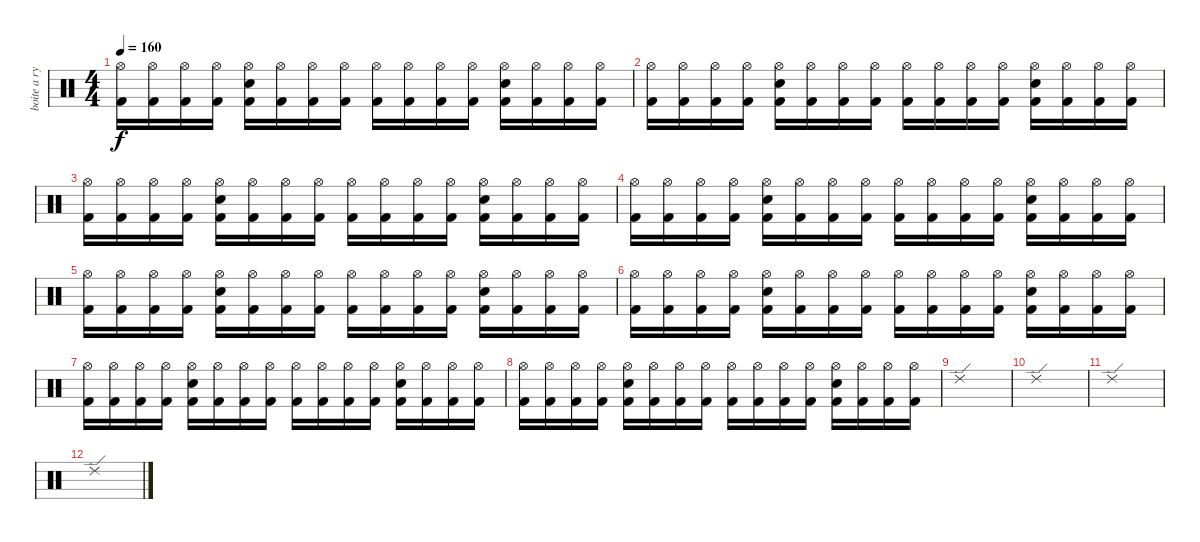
\track ("boite a rythme" "boite a ry") {instrument percussion}
\staff {score}
\articulation defaults
\ts (4 4)
\tempo 160
\clef neutral
\ks c
("Hi-Hat (open)" "Kick (hit) 2").16{dy f} ("Hi-Hat (open)" "Kick (hit) 2").16 ("Hi-Hat (open)" "Kick (hit) 2").16 ("Hi-Hat (open)" "Kick (hit) 2").16 ("Hi-Hat (open)" "Electric Snare (hit)" "Kick (hit) 2").16 ("Hi-Hat (open)" "Kick (hit) 2").16 ("Hi-Hat (open)" "Kick (hit) 2").16 ("Hi-Hat (open)" "Kick (hit) 2").16 ("Hi-Hat (open)" "Kick (hit) 2").16 ("Hi-Hat (open)" "Kick (hit) 2").16 ("Hi-Hat (open)" "Kick (hit) 2").16 ("Hi-Hat (open)" "Kick (hit) 2").16 ("Hi-Hat (open)" "Electric Snare (hit)" "Kick (hit) 2").16 ("Hi-Hat (open)" "Kick (hit) 2").16 ("Hi-Hat (open)" "Kick (hit) 2").16 ("Hi-Hat (open)" "Kick (hit) 2").16 |
("Hi-Hat (open)" "Kick (hit) 2").16 ("Hi-Hat (open)" "Kick (hit) 2").16 ("Hi-Hat (open)" "Kick (hit) 2").16 ("Hi-Hat (open)" "Kick (hit) 2").16 ("Hi-Hat (open)" "Electric Snare (hit)" "Kick (hit) 2").16 ("Hi-Hat (open)" "Kick (hit) 2").16 ("Hi-Hat (open)" "Kick (hit) 2").16 ("Hi-Hat (open)" "Kick (hit) 2").16 ("Hi-Hat (open)" "Kick (hit) 2").16 ("Hi-Hat (open)" "Kick (hit) 2").16 ("Hi-Hat (open)" "Kick (hit) 2").16 ("Hi-Hat (open)" "Kick (hit) 2").16 ("Hi-Hat (open)" "Electric Snare (hit)" "Kick (hit) 2").16 ("Hi-Hat (open)" "Kick (hit) 2").16 ("Hi-Hat (open)" "Kick (hit) 2").16 ("Hi-Hat (open)" "Kick (hit) 2").16 |
("Hi-Hat (open)" "Kick (hit) 2").16 ("Hi-Hat (open)" "Kick (hit) 2").16 ("Hi-Hat (open)" "Kick (hit) 2").16 ("Hi-Hat (open)" "Kick (hit) 2").16 ("Hi-Hat (open)" "Electric Snare (hit)" "Kick (hit) 2").16 ("Hi-Hat (open)" "Kick (hit) 2").16 ("Hi-Hat (open)" "Kick (hit) 2").16 ("Hi-Hat (open)" "Kick (hit) 2").16 ("Hi-Hat (open)" "Kick (hit) 2").16 ("Hi-Hat (open)" "Kick (hit) 2").16 ("Hi-Hat (open)" "Kick (hit) 2").16 ("Hi-Hat (open)" "Kick (hit) 2").16 ("Hi-Hat (open)" "Electric Snare (hit)" "Kick (hit) 2").16 ("Hi-Hat (open)" "Kick (hit) 2").16 ("Hi-Hat (open)" "Kick (hit) 2").16 ("Hi-Hat (open)" "Kick (hit) 2").16 |
("Hi-Hat (open)" "Kick (hit) 2").16 ("Hi-Hat (open)" "Kick (hit) 2").16 ("Hi-Hat (open)" "Kick (hit) 2").16 ("Hi-Hat (open)" "Kick (hit) 2").16 ("Hi-Hat (open)" "Electric Snare (hit)" "Kick (hit) 2").16 ("Hi-Hat (open)" "Kick (hit) 2").16 ("Hi-Hat (open)" "Kick (hit) 2").16 ("Hi-Hat (open)" "Kick (hit) 2").16 ("Hi-Hat (open)" "Kick (hit) 2").16 ("Hi-Hat (open)" "Kick (hit) 2").16 ("Hi-Hat (open)" "Kick (hit) 2").16 ("Hi-Hat (open)" "Kick (hit) 2").16 ("Hi-Hat (open)" "Electric Snare (hit)" "Kick (hit) 2").16 ("Hi-Hat (open)" "Kick (hit) 2").16 ("Hi-Hat (open)" "Kick (hit) 2").16 ("Hi-Hat (open)" "Kick (hit) 2").16 |
("Hi-Hat (open)" "Kick (hit) 2").16 ("Hi-Hat (open)" "Kick (hit) 2").16 ("Hi-Hat (open)" "Kick (hit) 2").16 ("Hi-Hat (open)" "Kick (hit) 2").16 ("Hi-Hat (open)" "Electric Snare (hit)" "Kick (hit) 2").16 ("Hi-Hat (open)" "Kick (hit) 2").16 ("Hi-Hat (open)" "Kick (hit) 2").16 ("Hi-Hat (open)" "Kick (hit) 2").16 ("Hi-Hat (open)" "Kick (hit) 2").16 ("Hi-Hat (open)" "Kick (hit) 2").16 ("Hi-Hat (open)" "Kick (hit) 2").16 ("Hi-Hat (open)" "Kick (hit) 2").16 ("Hi-Hat (open)" "Electric Snare (hit)" "Kick (hit) 2").16 ("Hi-Hat (open)" "Kick (hit) 2").16 ("Hi-Hat (open)" "Kick (hit) 2").16 ("Hi-Hat (open)" "Kick (hit) 2").16 |
("Hi-Hat (open)" "Kick (hit) 2").16 ("Hi-Hat (open)" "Kick (hit) 2").16 ("Hi-Hat (open)" "Kick (hit) 2").16 ("Hi-Hat (open)" "Kick (hit) 2").16 ("Hi-Hat (open)" "Electric Snare (hit)" "Kick (hit) 2").16 ("Hi-Hat (open)" "Kick (hit) 2").16 ("Hi-Hat (open)" "Kick (hit) 2").16 ("Hi-Hat (open)" "Kick (hit) 2").16 ("Hi-Hat (open)" "Kick (hit) 2").16 ("Hi-Hat (open)" "Kick (hit) 2").16 ("Hi-Hat (open)" "Kick (hit) 2").16 ("Hi-Hat (open)" "Kick (hit) 2").16 ("Hi-Hat (open)" "Electric Snare (hit)" "Kick (hit) 2").16 ("Hi-Hat (open)" "Kick (hit) 2").16 ("Hi-Hat (open)" "Kick (hit) 2").16 ("Hi-Hat (open)" "Kick (hit) 2").16 |
("Hi-Hat (open)" "Kick (hit) 2").16 ("Hi-Hat (open)" "Kick (hit) 2").16 ("Hi-Hat (open)" "Kick (hit) 2").16 ("Hi-Hat (open)" "Kick (hit) 2").16 ("Hi-Hat (open)" "Electric Snare (hit)" "Kick (hit) 2").16 ("Hi-Hat (open)" "Kick (hit) 2").16 ("Hi-Hat (open)" "Kick (hit) 2").16 ("Hi-Hat (open)" "Kick (hit) 2").16 ("Hi-Hat (open)" "Kick (hit) 2").16 ("Hi-Hat (open)" "Kick (hit) 2").16 ("Hi-Hat (open)" "Kick (hit) 2").16 ("Hi-Hat (open)" "Kick (hit) 2").16 ("Hi-Hat (open)" "Electric Snare (hit)" "Kick (hit) 2").16 ("Hi-Hat (open)" "Kick (hit) 2").16 ("Hi-Hat (open)" "Kick (hit) 2").16 ("Hi-Hat (open)" "Kick (hit) 2").16 |
("Hi-Hat (open)" "Kick (hit) 2").16 ("Hi-Hat (open)" "Kick (hit) 2").16 ("Hi-Hat (open)" "Kick (hit) 2").16 ("Hi-Hat (open)" "Kick (hit) 2").16 ("Hi-Hat (open)" "Electric Snare (hit)" "Kick (hit) 2").16 ("Hi-Hat (open)" "Kick (hit) 2").16 ("Hi-Hat (open)" "Kick (hit) 2").16 ("Hi-Hat (open)" "Kick (hit) 2").16 ("Hi-Hat (open)" "Kick (hit) 2").16 ("Hi-Hat (open)" "Kick (hit) 2").16 ("Hi-Hat (open)" "Kick (hit) 2").16 ("Hi-Hat (open)" "Kick (hit) 2").16 ("Hi-Hat (open)" "Electric Snare (hit)" "Kick (hit) 2").16 ("Hi-Hat (open)" "Kick (hit) 2").16 ("Hi-Hat (open)" "Kick (hit) 2").16 ("Hi-Hat (open)" "Kick (hit) 2").16 |
"Ride (edge) 2".1 |
"Ride (edge) 2".1 |
"Ride (edge) 2".1 |
"Ride (edge) 2".1
